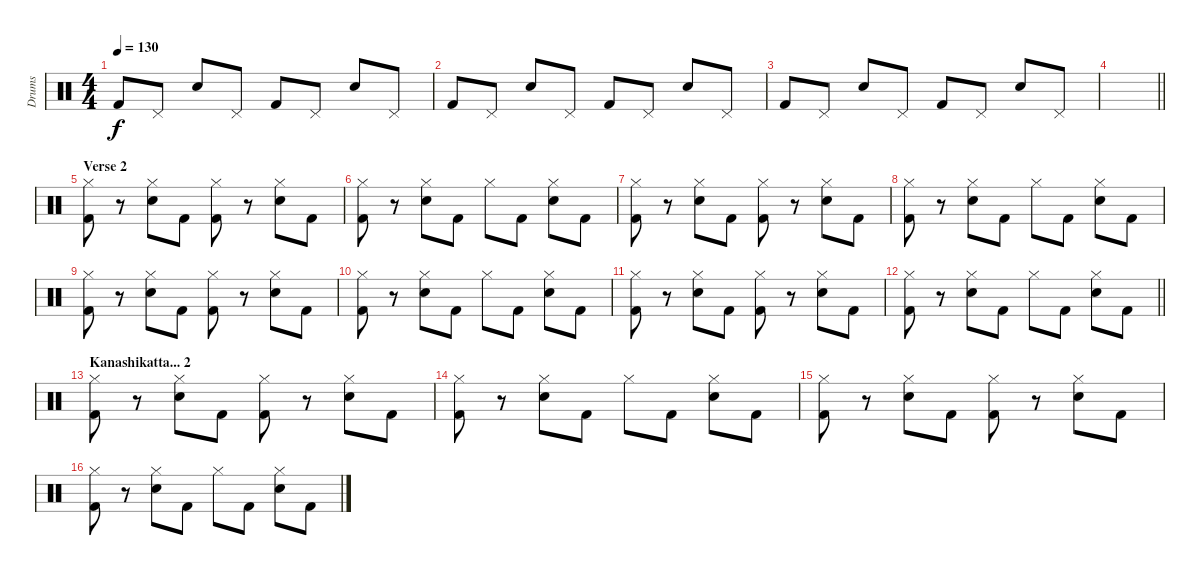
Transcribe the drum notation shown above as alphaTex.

\track ("Drums" "Drums") {instrument percussion}
\staff {score}
\articulation defaults
\ts (4 4)
\tempo 130
\clef neutral
\ks c "Kick (hit) 2".8{dy f} "Pedal Hi-Hat (hit)".8 "Electric Snare (hit)".8 "Pedal Hi-Hat (hit)".8 "Kick (hit) 2".8 "Pedal Hi-Hat (hit)".8 "Electric Snare (hit)".8 "Pedal Hi-Hat (hit)".8
|
"Kick (hit) 2".8 "Pedal Hi-Hat (hit)".8 "Electric Snare (hit)".8 "Pedal Hi-Hat (hit)".8 "Kick (hit) 2".8 "Pedal Hi-Hat (hit)".8 "Electric Snare (hit)".8 "Pedal Hi-Hat (hit)".8 |
"Kick (hit) 2".8 "Pedal Hi-Hat (hit)".8 "Electric Snare (hit)".8 "Pedal Hi-Hat (hit)".8 "Kick (hit) 2".8 "Pedal Hi-Hat (hit)".8 "Electric Snare (hit)".8 "Pedal Hi-Hat (hit)".8 |
\barLineRight lightlight
|
\section ("" "Verse 2")
("Kick (hit) 2" "Hi-Hat (closed)").8 r.8 ("Electric Snare (hit)" "Hi-Hat (closed)").8 "Kick (hit) 2".8 ("Kick (hit) 2" "Hi-Hat (closed)").8 r.8 ("Electric Snare (hit)" "Hi-Hat (closed)").8 "Kick (hit) 2".8 |
("Kick (hit) 2" "Hi-Hat (closed)").8 r.8 ("Electric Snare (hit)" "Hi-Hat (closed)").8 "Kick (hit) 2".8 "Hi-Hat (closed)".8 "Kick (hit) 2".8 ("Electric Snare (hit)" "Hi-Hat (closed)").8 "Kick (hit) 2".8 |
("Kick (hit) 2" "Hi-Hat (closed)").8 r.8 ("Electric Snare (hit)" "Hi-Hat (closed)").8 "Kick (hit) 2".8 ("Kick (hit) 2" "Hi-Hat (closed)").8 r.8 ("Electric Snare (hit)" "Hi-Hat (closed)").8 "Kick (hit) 2".8 |
("Kick (hit) 2" "Hi-Hat (closed)").8 r.8 ("Electric Snare (hit)" "Hi-Hat (closed)").8 "Kick (hit) 2".8 "Hi-Hat (closed)".8 "Kick (hit) 2".8 ("Electric Snare (hit)" "Hi-Hat (closed)").8 "Kick (hit) 2".8 |
("Kick (hit) 2" "Hi-Hat (closed)").8 r.8 ("Electric Snare (hit)" "Hi-Hat (closed)").8 "Kick (hit) 2".8 ("Kick (hit) 2" "Hi-Hat (closed)").8 r.8 ("Electric Snare (hit)" "Hi-Hat (closed)").8 "Kick (hit) 2".8 |
("Kick (hit) 2" "Hi-Hat (closed)").8 r.8 ("Electric Snare (hit)" "Hi-Hat (closed)").8 "Kick (hit) 2".8 "Hi-Hat (closed)".8 "Kick (hit) 2".8 ("Electric Snare (hit)" "Hi-Hat (closed)").8 "Kick (hit) 2".8 |
("Kick (hit) 2" "Hi-Hat (closed)").8 r.8 ("Electric Snare (hit)" "Hi-Hat (closed)").8 "Kick (hit) 2".8 ("Kick (hit) 2" "Hi-Hat (closed)").8 r.8 ("Electric Snare (hit)" "Hi-Hat (closed)").8 "Kick (hit) 2".8 |
\barLineRight lightlight
("Kick (hit) 2" "Hi-Hat (closed)").8 r.8 ("Electric Snare (hit)" "Hi-Hat (closed)").8 "Kick (hit) 2".8 "Hi-Hat (closed)".8 "Kick (hit) 2".8 ("Electric Snare (hit)" "Hi-Hat (closed)").8 "Kick (hit) 2".8 |
\section ("" "Kanashikatta... 2")
("Kick (hit) 2" "Hi-Hat (closed)").8 r.8 ("Electric Snare (hit)" "Hi-Hat (closed)").8 "Kick (hit) 2".8 ("Kick (hit) 2" "Hi-Hat (closed)").8 r.8 ("Electric Snare (hit)" "Hi-Hat (closed)").8 "Kick (hit) 2".8 |
("Kick (hit) 2" "Hi-Hat (closed)").8 r.8 ("Electric Snare (hit)" "Hi-Hat (closed)").8 "Kick (hit) 2".8 "Hi-Hat (closed)".8 "Kick (hit) 2".8 ("Electric Snare (hit)" "Hi-Hat (closed)").8 "Kick (hit) 2".8 |
("Kick (hit) 2" "Hi-Hat (closed)").8 r.8 ("Electric Snare (hit)" "Hi-Hat (closed)").8 "Kick (hit) 2".8 ("Kick (hit) 2" "Hi-Hat (closed)").8 r.8 ("Electric Snare (hit)" "Hi-Hat (closed)").8 "Kick (hit) 2".8 |
("Kick (hit) 2" "Hi-Hat (closed)").8 r.8 ("Electric Snare (hit)" "Hi-Hat (closed)").8 "Kick (hit) 2".8 "Hi-Hat (closed)".8 "Kick (hit) 2".8 ("Electric Snare (hit)" "Hi-Hat (closed)").8 "Kick (hit) 2".8
